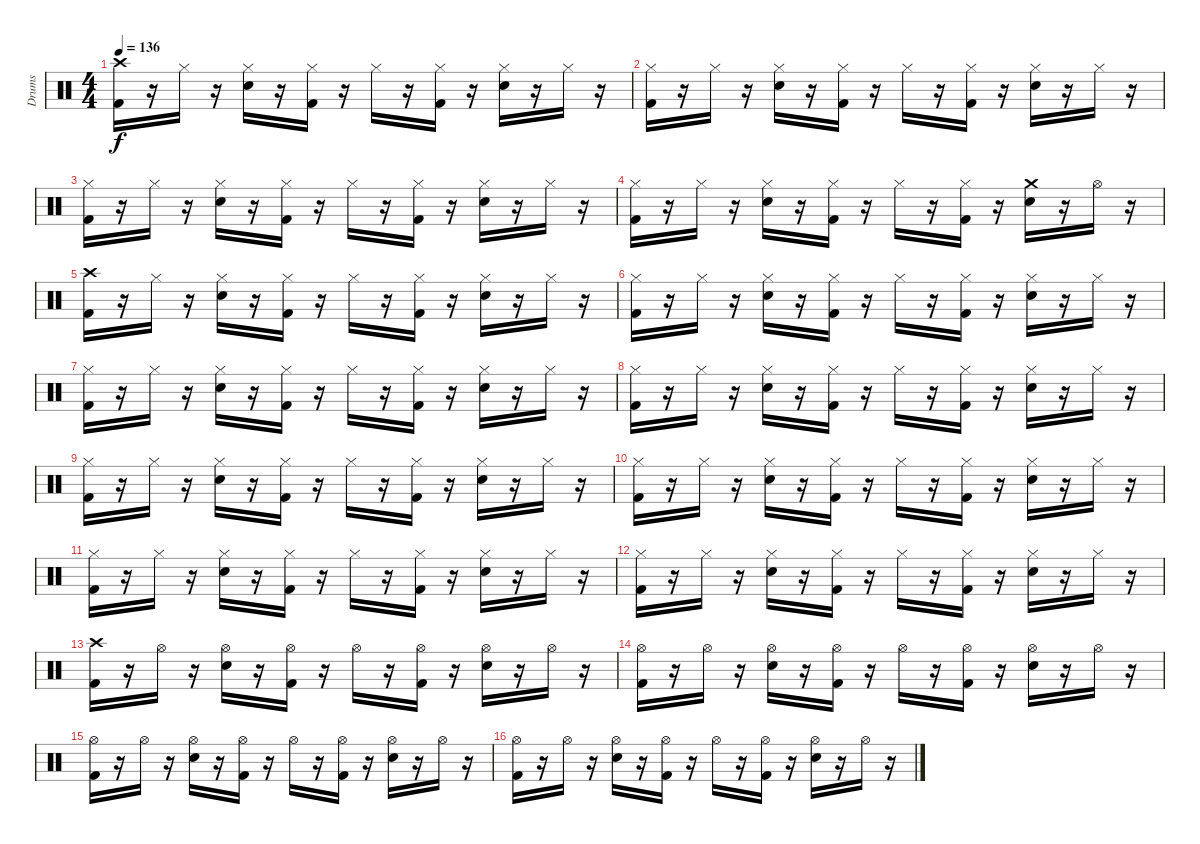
\track ("Drums" "Drums") {instrument percussion}
\staff {score}
\articulation defaults
\ts (4 4)
\tempo 136
\clef neutral
\ks c
("Kick (hit) 2" "Crash high (hit)").16{dy f} r.16 "Hi-Hat (closed)".16 r.16 ("Electric Snare (hit)" "Hi-Hat (closed)").16 r.16 ("Kick (hit) 2" "Hi-Hat (closed)").16 r.16 "Hi-Hat (closed)".16 r.16 ("Kick (hit) 2" "Hi-Hat (closed)").16 r.16 ("Electric Snare (hit)" "Hi-Hat (closed)").16 r.16 "Hi-Hat (closed)".16 r.16 |
("Kick (hit) 2" "Hi-Hat (closed)").16 r.16 "Hi-Hat (closed)".16 r.16 ("Electric Snare (hit)" "Hi-Hat (closed)").16 r.16 ("Kick (hit) 2" "Hi-Hat (closed)").16 r.16 "Hi-Hat (closed)".16 r.16 ("Kick (hit) 2" "Hi-Hat (closed)").16 r.16 ("Electric Snare (hit)" "Hi-Hat (closed)").16 r.16 "Hi-Hat (closed)".16 r.16 |
("Kick (hit) 2" "Hi-Hat (closed)").16 r.16 "Hi-Hat (closed)".16 r.16 ("Electric Snare (hit)" "Hi-Hat (closed)").16 r.16 ("Kick (hit) 2" "Hi-Hat (closed)").16 r.16 "Hi-Hat (closed)".16 r.16 ("Kick (hit) 2" "Hi-Hat (closed)").16 r.16 ("Electric Snare (hit)" "Hi-Hat (closed)").16 r.16 "Hi-Hat (closed)".16 r.16 |
("Kick (hit) 2" "Hi-Hat (closed)").16 r.16 "Hi-Hat (closed)".16 r.16 ("Electric Snare (hit)" "Hi-Hat (closed)").16 r.16 ("Kick (hit) 2" "Hi-Hat (closed)").16 r.16 "Hi-Hat (closed)".16 r.16 ("Kick (hit) 2" "Hi-Hat (closed)").16 r.16 ("Electric Snare (hit)" "Crash medium (hit)").16 r.16 "Hi-Hat (open)".16 r.16 |
("Kick (hit) 2" "Crash high (hit)").16 r.16 "Hi-Hat (closed)".16 r.16 ("Electric Snare (hit)" "Hi-Hat (closed)").16 r.16 ("Kick (hit) 2" "Hi-Hat (closed)").16 r.16 "Hi-Hat (closed)".16 r.16 ("Kick (hit) 2" "Hi-Hat (closed)").16 r.16 ("Electric Snare (hit)" "Hi-Hat (closed)").16 r.16 "Hi-Hat (closed)".16 r.16 |
("Kick (hit) 2" "Hi-Hat (closed)").16 r.16 "Hi-Hat (closed)".16 r.16 ("Electric Snare (hit)" "Hi-Hat (closed)").16 r.16 ("Kick (hit) 2" "Hi-Hat (closed)").16 r.16 "Hi-Hat (closed)".16 r.16 ("Kick (hit) 2" "Hi-Hat (closed)").16 r.16 ("Electric Snare (hit)" "Hi-Hat (closed)").16 r.16 "Hi-Hat (closed)".16 r.16 |
("Kick (hit) 2" "Hi-Hat (closed)").16 r.16 "Hi-Hat (closed)".16 r.16 ("Electric Snare (hit)" "Hi-Hat (closed)").16 r.16 ("Kick (hit) 2" "Hi-Hat (closed)").16 r.16 "Hi-Hat (closed)".16 r.16 ("Kick (hit) 2" "Hi-Hat (closed)").16 r.16 ("Electric Snare (hit)" "Hi-Hat (closed)").16 r.16 "Hi-Hat (closed)".16 r.16 |
("Kick (hit) 2" "Hi-Hat (closed)").16 r.16 "Hi-Hat (closed)".16 r.16 ("Electric Snare (hit)" "Hi-Hat (closed)").16 r.16 ("Kick (hit) 2" "Hi-Hat (closed)").16 r.16 "Hi-Hat (closed)".16 r.16 ("Kick (hit) 2" "Hi-Hat (closed)").16 r.16 ("Electric Snare (hit)" "Hi-Hat (closed)").16 r.16 "Hi-Hat (closed)".16 r.16 |
("Kick (hit) 2" "Hi-Hat (closed)").16 r.16 "Hi-Hat (closed)".16 r.16 ("Electric Snare (hit)" "Hi-Hat (closed)").16 r.16 ("Kick (hit) 2" "Hi-Hat (closed)").16 r.16 "Hi-Hat (closed)".16 r.16 ("Kick (hit) 2" "Hi-Hat (closed)").16 r.16 ("Electric Snare (hit)" "Hi-Hat (closed)").16 r.16 "Hi-Hat (closed)".16 r.16 |
("Kick (hit) 2" "Hi-Hat (closed)").16 r.16 "Hi-Hat (closed)".16 r.16 ("Electric Snare (hit)" "Hi-Hat (closed)").16 r.16 ("Kick (hit) 2" "Hi-Hat (closed)").16 r.16 "Hi-Hat (closed)".16 r.16 ("Kick (hit) 2" "Hi-Hat (closed)").16 r.16 ("Electric Snare (hit)" "Hi-Hat (closed)").16 r.16 "Hi-Hat (closed)".16 r.16 |
("Kick (hit) 2" "Hi-Hat (closed)").16 r.16 "Hi-Hat (closed)".16 r.16 ("Electric Snare (hit)" "Hi-Hat (closed)").16 r.16 ("Kick (hit) 2" "Hi-Hat (closed)").16 r.16 "Hi-Hat (closed)".16 r.16 ("Kick (hit) 2" "Hi-Hat (closed)").16 r.16 ("Electric Snare (hit)" "Hi-Hat (closed)").16 r.16 "Hi-Hat (closed)".16 r.16 |
("Kick (hit) 2" "Hi-Hat (closed)").16 r.16 "Hi-Hat (closed)".16 r.16 ("Electric Snare (hit)" "Hi-Hat (closed)").16 r.16 ("Kick (hit) 2" "Hi-Hat (closed)").16 r.16 "Hi-Hat (closed)".16 r.16 ("Kick (hit) 2" "Hi-Hat (closed)").16 r.16 ("Electric Snare (hit)" "Hi-Hat (closed)").16 r.16 "Hi-Hat (closed)".16 r.16 |
("Kick (hit) 2" "Crash high (hit)").16 r.16 "Hi-Hat (open)".16 r.16 ("Electric Snare (hit)" "Hi-Hat (open)").16 r.16 ("Kick (hit) 2" "Hi-Hat (open)").16 r.16 "Hi-Hat (open)".16 r.16 ("Kick (hit) 2" "Hi-Hat (open)").16 r.16 ("Electric Snare (hit)" "Hi-Hat (open)").16 r.16 "Hi-Hat (open)".16 r.16 |
("Kick (hit) 2" "Hi-Hat (open)").16 r.16 "Hi-Hat (open)".16 r.16 ("Electric Snare (hit)" "Hi-Hat (open)").16 r.16 ("Kick (hit) 2" "Hi-Hat (open)").16 r.16 "Hi-Hat (open)".16 r.16 ("Kick (hit) 2" "Hi-Hat (open)").16 r.16 ("Electric Snare (hit)" "Hi-Hat (open)").16 r.16 "Hi-Hat (open)".16 r.16 |
("Kick (hit) 2" "Hi-Hat (open)").16 r.16 "Hi-Hat (open)".16 r.16 ("Electric Snare (hit)" "Hi-Hat (open)").16 r.16 ("Kick (hit) 2" "Hi-Hat (open)").16 r.16 "Hi-Hat (open)".16 r.16 ("Kick (hit) 2" "Hi-Hat (open)").16 r.16 ("Electric Snare (hit)" "Hi-Hat (open)").16 r.16 "Hi-Hat (open)".16 r.16 |
("Kick (hit) 2" "Hi-Hat (open)").16 r.16 "Hi-Hat (open)".16 r.16 ("Electric Snare (hit)" "Hi-Hat (open)").16 r.16 ("Kick (hit) 2" "Hi-Hat (open)").16 r.16 "Hi-Hat (open)".16 r.16 ("Kick (hit) 2" "Hi-Hat (open)").16 r.16 ("Electric Snare (hit)" "Hi-Hat (open)").16 r.16 "Hi-Hat (open)".16 r.16
